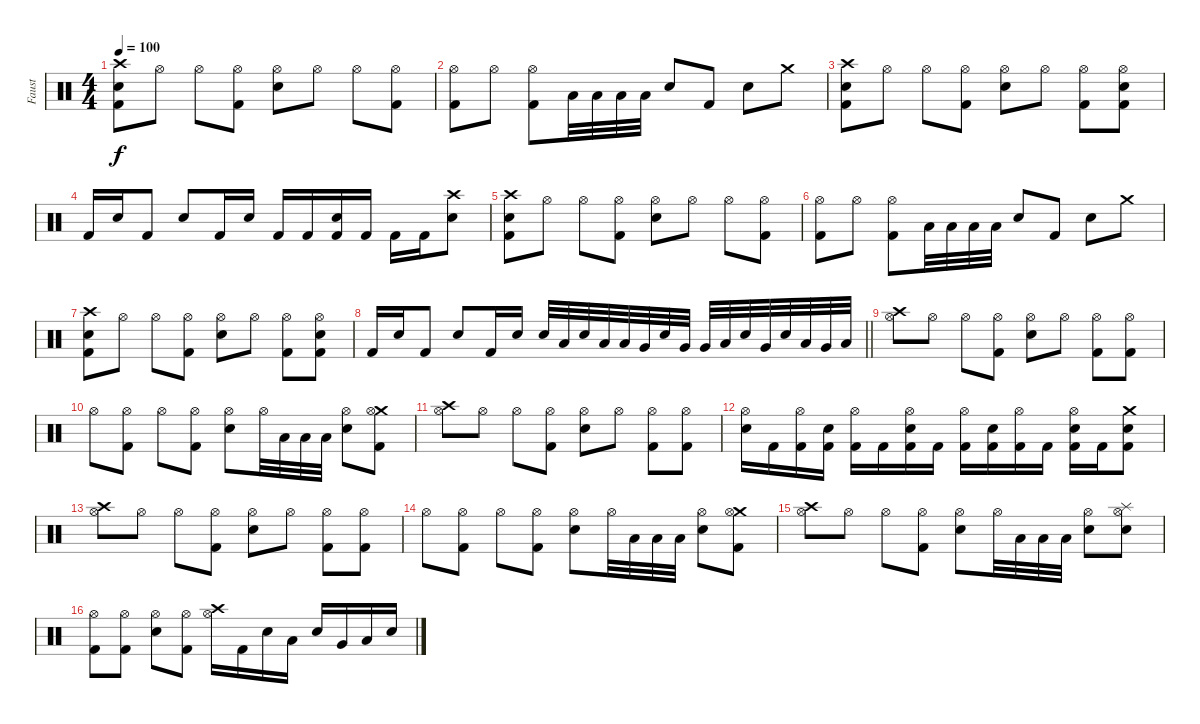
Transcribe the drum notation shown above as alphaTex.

\track ("Faust" "Faust") {instrument percussion}
\staff {score}
\articulation defaults
\ts (4 4)
\tempo 100
\clef neutral
\ks c
("Crash high (hit)" "Snare (hit) 2" "Kick (hit) 2").8{dy f} "Hi-Hat (open)".8 "Hi-Hat (open)".8 ("Hi-Hat (open)" "Kick (hit) 2").8 ("Snare (hit) 2" "Hi-Hat (open)").8 "Hi-Hat (open)".8 "Hi-Hat (open)".8 ("Hi-Hat (open)" "Kick (hit) 2").8 |
("Hi-Hat (open)" "Kick (hit) 2").8 "Hi-Hat (open)".8 ("Hi-Hat (open)" "Kick (hit) 2").8 "Low Tom (hit)".32 "Low Tom (hit)".32 "Low Tom (hit)".32 "Low Tom (hit)".32 "Snare (hit) 2".8 "Kick (hit) 2".8 "Snare (hit) 2".8 "Crash medium (hit)".8 |
("Crash high (hit)" "Snare (hit) 2" "Kick (hit) 2").8 "Hi-Hat (open)".8 "Hi-Hat (open)".8 ("Hi-Hat (open)" "Kick (hit) 2").8 ("Snare (hit) 2" "Hi-Hat (open)").8 "Hi-Hat (open)".8 ("Hi-Hat (open)" "Kick (hit) 2").8 ("Snare (hit) 2" "Hi-Hat (open)" "Kick (hit) 2").8 |
"Kick (hit) 2".16 "Snare (hit) 2".16 "Kick (hit) 2".8 "Snare (hit) 2".8 "Kick (hit) 2".16 "Snare (hit) 2".16 "Kick (hit) 2".16 "Kick (hit) 2".16 ("Snare (hit) 2" "Kick (hit) 2").16 "Kick (hit) 2".16 "Kick (hit) 2".16 "Kick (hit) 2".16 ("Crash high (hit)" "Snare (hit) 2").8 |
("Crash high (hit)" "Snare (hit) 2" "Kick (hit) 2").8 "Hi-Hat (open)".8 "Hi-Hat (open)".8 ("Hi-Hat (open)" "Kick (hit) 2").8 ("Snare (hit) 2" "Hi-Hat (open)").8 "Hi-Hat (open)".8 "Hi-Hat (open)".8 ("Hi-Hat (open)" "Kick (hit) 2").8 |
("Hi-Hat (open)" "Kick (hit) 2").8 "Hi-Hat (open)".8 ("Hi-Hat (open)" "Kick (hit) 2").8 "Low Tom (hit)".32 "Low Tom (hit)".32 "Low Tom (hit)".32 "Low Tom (hit)".32 "Snare (hit) 2".8 "Kick (hit) 2".8 "Snare (hit) 2".8 "Crash medium (hit)".8 |
("Crash high (hit)" "Snare (hit) 2" "Kick (hit) 2").8 "Hi-Hat (open)".8 "Hi-Hat (open)".8 ("Hi-Hat (open)" "Kick (hit) 2").8 ("Snare (hit) 2" "Hi-Hat (open)").8 "Hi-Hat (open)".8 ("Hi-Hat (open)" "Kick (hit) 2").8 ("Snare (hit) 2" "Hi-Hat (open)" "Kick (hit) 2").8 |
\barLineRight lightlight "Kick (hit) 2".16 "Snare (hit) 2".16 "Kick (hit) 2".8 "Snare (hit) 2".8 "Kick (hit) 2".16 "Snare (hit) 2".16 "Snare (hit) 2".32 "Low Tom (hit)".32 "Snare (hit) 2".32 "Low Tom (hit)".32 "Low Tom (hit)".32 "Very Low Tom (hit)".32 "Snare (hit) 2".32 "Very Low Tom (hit)".32 "Very Low Tom (hit)".32 "Low Floor Tom (hit)".32 "Snare (hit) 2".32 "Very Low Tom (hit)".32 "Snare (hit) 2".32 "Low Tom (hit)".32 "Very Low Tom (hit)".32 "Low Floor Tom (hit)".32
|
("Crash high (hit)" "Hi-Hat (open)").8 "Hi-Hat (open)".8 "Hi-Hat (open)".8 ("Hi-Hat (open)" "Kick (hit) 2").8 ("Snare (hit) 2" "Hi-Hat (open)").8 "Hi-Hat (open)".8 ("Hi-Hat (open)" "Kick (hit) 2").8 ("Hi-Hat (open)" "Kick (hit) 2").8 |
"Hi-Hat (open)".8 ("Hi-Hat (open)" "Kick (hit) 2").8 "Hi-Hat (open)".8 ("Hi-Hat (open)" "Kick (hit) 2").8 ("Snare (hit) 2" "Hi-Hat (open)").8 "Hi-Hat (open)".32 "Low Tom (hit)".32 "Low Tom (hit)".32 "Low Tom (hit)".32 ("Snare (hit) 2" "Hi-Hat (open)").8 ("Crash medium (hit)" "Hi-Hat (open)" "Kick (hit) 2").8 |
("Crash high (hit)" "Hi-Hat (open)").8 "Hi-Hat (open)".8 "Hi-Hat (open)".8 ("Hi-Hat (open)" "Kick (hit) 2").8 ("Snare (hit) 2" "Hi-Hat (open)").8 "Hi-Hat (open)".8 ("Hi-Hat (open)" "Kick (hit) 2").8 ("Hi-Hat (open)" "Kick (hit) 2").8 |
("Snare (hit) 2" "Hi-Hat (open)").16 "Kick (hit) 2".16 ("Hi-Hat (open)" "Kick (hit) 2").16 ("Snare (hit) 2" "Kick (hit) 2").16 ("Hi-Hat (open)" "Kick (hit) 2").16 "Kick (hit) 2".16 ("Snare (hit) 2" "Hi-Hat (open)" "Kick (hit) 2").16 "Kick (hit) 2".16 ("Hi-Hat (open)" "Kick (hit) 2").16 ("Snare (hit) 2" "Kick (hit) 2").16 ("Hi-Hat (open)" "Kick (hit) 2").16 "Kick (hit) 2".16 ("Snare (hit) 2" "Hi-Hat (open)" "Kick (hit) 2").16 "Kick (hit) 2".16 ("Crash medium (hit)" "Snare (hit) 2" "Kick (hit) 2").8 |
("Crash high (hit)" "Hi-Hat (open)").8 "Hi-Hat (open)".8 "Hi-Hat (open)".8 ("Hi-Hat (open)" "Kick (hit) 2").8 ("Snare (hit) 2" "Hi-Hat (open)").8 "Hi-Hat (open)".8 ("Hi-Hat (open)" "Kick (hit) 2").8 ("Hi-Hat (open)" "Kick (hit) 2").8 |
"Hi-Hat (open)".8 ("Hi-Hat (open)" "Kick (hit) 2").8 "Hi-Hat (open)".8 ("Hi-Hat (open)" "Kick (hit) 2").8 ("Snare (hit) 2" "Hi-Hat (open)").8 "Hi-Hat (open)".32 "Low Tom (hit)".32 "Low Tom (hit)".32 "Low Tom (hit)".32 ("Snare (hit) 2" "Hi-Hat (open)").8 ("Crash medium (hit)" "Hi-Hat (open)" "Kick (hit) 2").8 |
("Crash high (hit)" "Hi-Hat (open)").8 "Hi-Hat (open)".8 "Hi-Hat (open)".8 ("Hi-Hat (open)" "Kick (hit) 2").8 ("Snare (hit) 2" "Hi-Hat (open)").8 "Hi-Hat (open)".32 "Low Tom (hit)".32 "Low Tom (hit)".32 "Low Tom (hit)".32 ("Snare (hit) 2" "Hi-Hat (open)").8 ("Splash (hit)" "Snare (hit) 2" "Hi-Hat (open)").8 |
("Hi-Hat (open)" "Kick (hit) 2").8 ("Hi-Hat (open)" "Kick (hit) 2").8 ("Snare (hit) 2" "Hi-Hat (open)").8 ("Hi-Hat (open)" "Kick (hit) 2").8 ("Crash high (hit)" "Hi-Hat (open)").16 "Kick (hit) 2".16 "Snare (hit) 2".16 "Low Tom (hit)".16 "Snare (hit) 2".16 "Very Low Tom (hit)".16 "Low Floor Tom (hit)".16 "Snare (hit) 2".16
